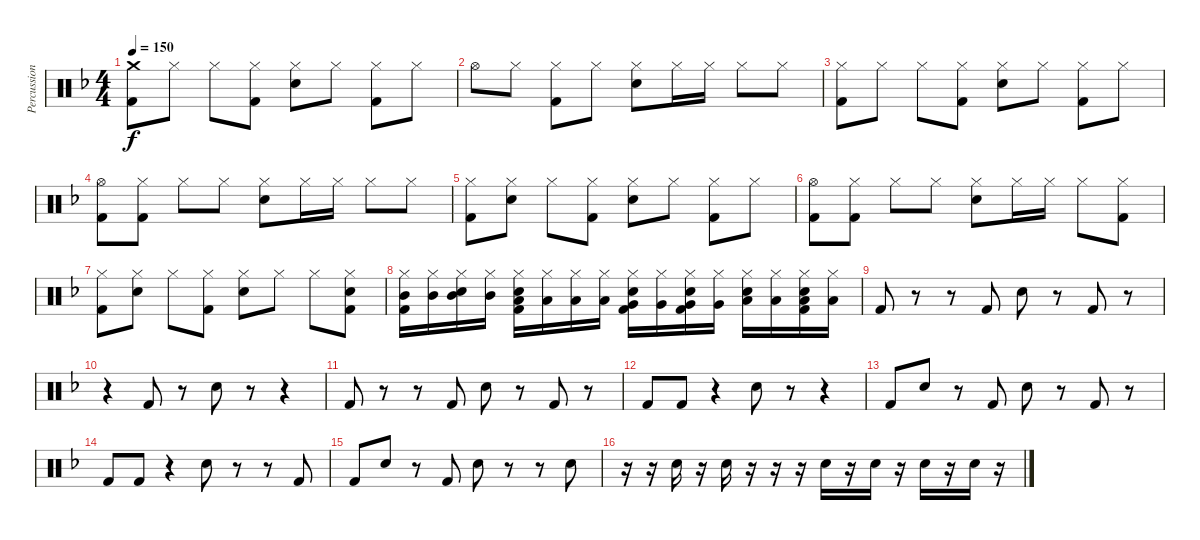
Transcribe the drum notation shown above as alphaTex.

\track ("Percussion" "Percussion") {instrument percussion}
\staff {score}
\articulation defaults
\ts (4 4)
\tempo 150
\clef neutral
\ks f
("Crash medium (hit)" "Kick (hit) 2").8{dy f} "Hi-Hat (closed)".8 "Hi-Hat (closed)".8 ("Hi-Hat (closed)" "Kick (hit) 2").8 ("Hi-Hat (closed)" "Electric Snare (hit)").8 "Hi-Hat (closed)".8 ("Hi-Hat (closed)" "Kick (hit) 2").8 "Hi-Hat (closed)".8 |
"Hi-Hat (open)".8 "Hi-Hat (closed)".8 ("Hi-Hat (closed)" "Kick (hit) 2").8 "Hi-Hat (closed)".8 ("Hi-Hat (closed)" "Electric Snare (hit)").8 "Hi-Hat (closed)".16 "Hi-Hat (closed)".16 "Hi-Hat (closed)".8 "Hi-Hat (closed)".8 |
("Hi-Hat (closed)" "Kick (hit) 2").8 "Hi-Hat (closed)".8 "Hi-Hat (closed)".8 ("Hi-Hat (closed)" "Kick (hit) 2").8 ("Hi-Hat (closed)" "Electric Snare (hit)").8 "Hi-Hat (closed)".8 ("Hi-Hat (closed)" "Kick (hit) 2").8 "Hi-Hat (closed)".8 |
("Hi-Hat (open)" "Kick (hit) 2").8 ("Hi-Hat (closed)" "Kick (hit) 2").8 "Hi-Hat (closed)".8 "Hi-Hat (closed)".8 ("Hi-Hat (closed)" "Electric Snare (hit)").8 "Hi-Hat (closed)".16 "Hi-Hat (closed)".16 "Hi-Hat (closed)".8 "Hi-Hat (closed)".8 |
("Hi-Hat (closed)" "Kick (hit) 2").8 ("Hi-Hat (closed)" "Electric Snare (hit)").8 "Hi-Hat (closed)".8 ("Hi-Hat (closed)" "Kick (hit) 2").8 ("Hi-Hat (closed)" "Electric Snare (hit)").8 "Hi-Hat (closed)".8 ("Hi-Hat (closed)" "Kick (hit) 2").8 "Hi-Hat (closed)".8 |
("Hi-Hat (open)" "Kick (hit) 2").8 ("Hi-Hat (closed)" "Kick (hit) 2").8 "Hi-Hat (closed)".8 "Hi-Hat (closed)".8 ("Hi-Hat (closed)" "Electric Snare (hit)").8 "Hi-Hat (closed)".16 "Hi-Hat (closed)".16 "Hi-Hat (closed)".8 ("Hi-Hat (closed)" "Kick (hit) 2").8 |
("Hi-Hat (closed)" "Kick (hit) 2").8 ("Hi-Hat (closed)" "Electric Snare (hit)").8 "Hi-Hat (closed)".8 ("Hi-Hat (closed)" "Kick (hit) 2").8 ("Hi-Hat (closed)" "Electric Snare (hit)").8 "Hi-Hat (closed)".8 "Hi-Hat (closed)".8 ("Hi-Hat (closed)" "Electric Snare (hit)" "Kick (hit) 2").8 |
("Hi-Hat (closed)" "Mid Tom (hit)" "Kick (hit) 2").16 ("Hi-Hat (closed)" "Mid Tom (hit)").16 ("Hi-Hat (closed)" "Mid Tom (hit)" "Electric Snare (hit)").16 ("Hi-Hat (closed)" "Mid Tom (hit)").16 ("Hi-Hat (closed)" "Low Tom (hit)" "Electric Snare (hit)" "Kick (hit) 2").16 ("Hi-Hat (closed)" "Low Tom (hit)").16 ("Hi-Hat (closed)" "Low Tom (hit)").16 ("Hi-Hat (closed)" "Low Tom (hit)").16 ("Hi-Hat (closed)" "Very Low Tom (hit)" "Electric Snare (hit)" "Kick (hit) 2").16 ("Hi-Hat (closed)" "Very Low Tom (hit)").16 ("Hi-Hat (closed)" "Very Low Tom (hit)" "Electric Snare (hit)" "Kick (hit) 2").16 ("Hi-Hat (closed)" "Very Low Tom (hit)").16 ("Hi-Hat (closed)" "Low Floor Tom (hit)" "Electric Snare (hit)").16 ("Hi-Hat (closed)" "Low Floor Tom (hit)").16 ("Hi-Hat (closed)" "Low Floor Tom (hit)" "Electric Snare (hit)" "Kick (hit) 2").16 ("Hi-Hat (closed)" "Low Floor Tom (hit)").16 |
"Kick (hit) 2".8 r.8 r.8 "Kick (hit) 2".8 "Electric Snare (hit)".8 r.8 "Kick (hit) 2".8 r.8 |
r.4 "Kick (hit) 2".8 r.8 "Electric Snare (hit)".8 r.8 r.4 |
"Kick (hit) 2".8 r.8 r.8 "Kick (hit) 2".8 "Electric Snare (hit)".8 r.8 "Kick (hit) 2".8 r.8 |
"Kick (hit) 2".8 "Kick (hit) 2".8 r.4 "Electric Snare (hit)".8 r.8 r.4 |
"Kick (hit) 2".8 "Electric Snare (hit)".8 r.8 "Kick (hit) 2".8 "Electric Snare (hit)".8 r.8 "Kick (hit) 2".8 r.8 |
"Kick (hit) 2".8 "Kick (hit) 2".8 r.4 "Electric Snare (hit)".8 r.8 r.8 "Kick (hit) 2".8 |
"Kick (hit) 2".8 "Electric Snare (hit)".8 r.8 "Kick (hit) 2".8 "Electric Snare (hit)".8 r.8 r.8 "Electric Snare (hit)".8 |
r.16 r.16 "Electric Snare (hit)".16 r.16 "Electric Snare (hit)".16 r.16 r.16 r.16 "Electric Snare (hit)".16 r.16 "Electric Snare (hit)".16 r.16 "Electric Snare (hit)".16 r.16 "Electric Snare (hit)".16 r.16
